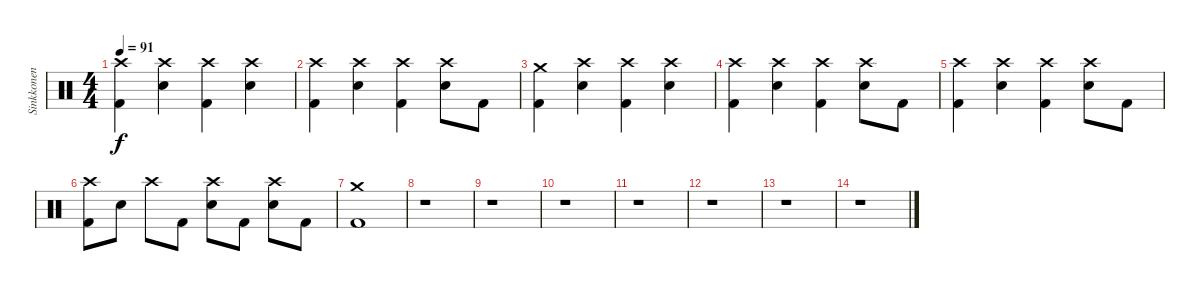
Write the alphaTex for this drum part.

\track ("Sinkkonen" "Sinkkonen") {instrument percussion}
\staff {score}
\articulation defaults
\ts (4 4)
\tempo 91
\clef neutral
\ks c
("Kick (hit) 2" "Crash high (hit)").4{dy f} ("Crash high (hit)" "Snare (hit) 2").4 ("Kick (hit) 2" "Crash high (hit)").4 ("Crash high (hit)" "Snare (hit) 2").4 |
("Kick (hit) 2" "Crash high (hit)").4 ("Crash high (hit)" "Snare (hit) 2").4 ("Kick (hit) 2" "Crash high (hit)").4 ("Crash high (hit)" "Snare (hit) 2").8 "Kick (hit) 2".8 |
("Kick (hit) 2" "Crash medium (hit)").4 ("Crash high (hit)" "Snare (hit) 2").4 ("Kick (hit) 2" "Crash high (hit)").4 ("Crash high (hit)" "Snare (hit) 2").4 |
("Kick (hit) 2" "Crash high (hit)").4 ("Crash high (hit)" "Snare (hit) 2").4 ("Kick (hit) 2" "Crash high (hit)").4 ("Crash high (hit)" "Snare (hit) 2").8 "Kick (hit) 2".8 |
("Kick (hit) 2" "Crash high (hit)").4 ("Crash high (hit)" "Snare (hit) 2").4 ("Kick (hit) 2" "Crash high (hit)").4 ("Crash high (hit)" "Snare (hit) 2").8 "Kick (hit) 2".8 |
("Kick (hit) 2" "Crash high (hit)").8 "Snare (hit) 2".8 "Crash high (hit)".8 "Kick (hit) 2".8 ("Crash high (hit)" "Snare (hit) 2").8 "Kick (hit) 2".8 ("Crash high (hit)" "Snare (hit) 2").8 "Kick (hit) 2".8 |
("Kick (hit) 2" "Crash medium (hit)").1 |
r.1 |
r.1 |
r.1 |
r.1 |
r.1 |
r.1 |
r.1
